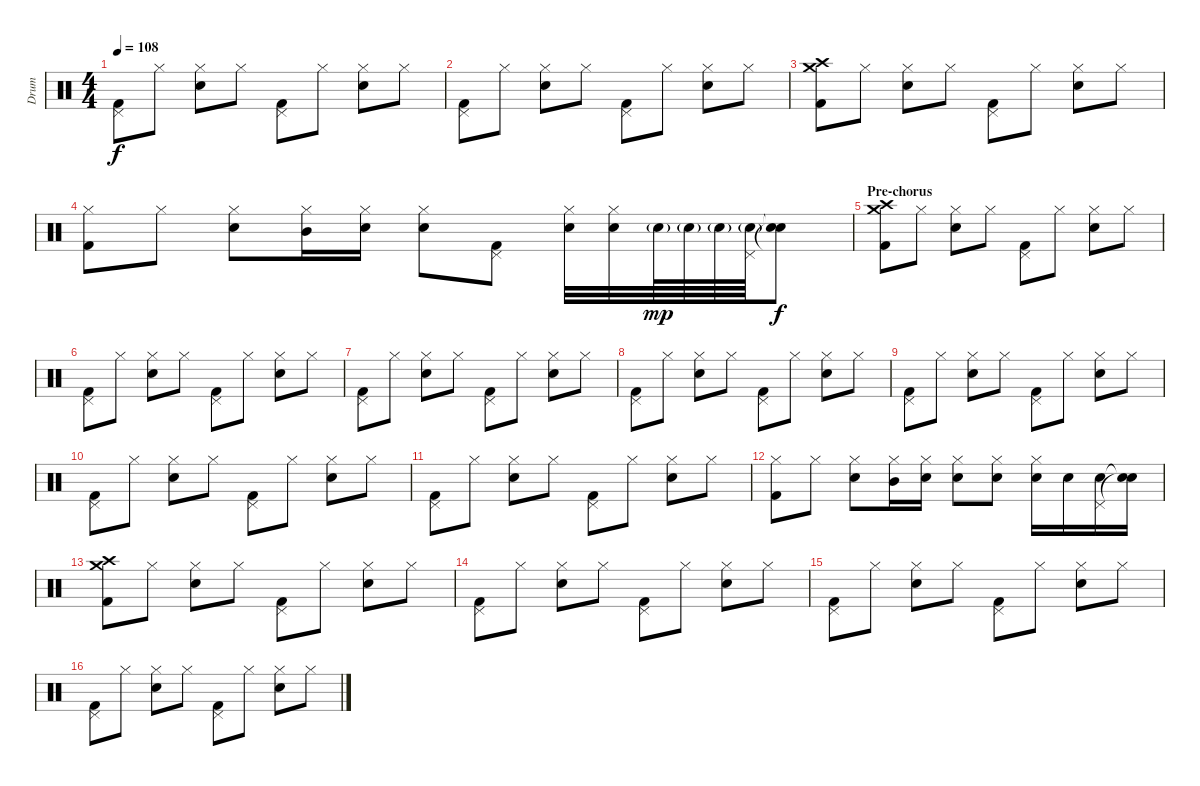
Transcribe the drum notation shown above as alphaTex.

\track ("Drum" "Drum") {instrument percussion}
\staff {score}
\articulation defaults
\ts (4 4)
\tempo 108
\clef neutral
\ks c
("Pedal Hi-Hat (hit)" "Kick (hit) 2").8{dy f} "Hi-Hat (closed)".8 ("Hi-Hat (closed)" "Electric Snare (hit)").8 "Hi-Hat (closed)".8 ("Pedal Hi-Hat (hit)" "Kick (hit) 2").8 "Hi-Hat (closed)".8 ("Hi-Hat (closed)" "Electric Snare (hit)").8 "Hi-Hat (closed)".8 |
("Pedal Hi-Hat (hit)" "Kick (hit) 2").8 "Hi-Hat (closed)".8 ("Hi-Hat (closed)" "Electric Snare (hit)").8 "Hi-Hat (closed)".8 ("Pedal Hi-Hat (hit)" "Kick (hit) 2").8 "Hi-Hat (closed)".8 ("Hi-Hat (closed)" "Electric Snare (hit)").8 "Hi-Hat (closed)".8 |
("Kick (hit) 2" "Crash high (hit)" "Crash medium (hit)").8 "Hi-Hat (closed)".8 ("Hi-Hat (closed)" "Electric Snare (hit)").8 "Hi-Hat (closed)".8 ("Pedal Hi-Hat (hit)" "Kick (hit) 2").8 "Hi-Hat (closed)".8 ("Hi-Hat (closed)" "Electric Snare (hit)").8 "Hi-Hat (closed)".8 |
("Hi-Hat (closed)" "Kick (hit) 2").8 "Hi-Hat (closed)".8 ("Hi-Hat (closed)" "Electric Snare (hit)").8 ("Hi-Hat (closed)" "Mid Tom (hit)").16 ("Hi-Hat (closed)" "Electric Snare (hit)").16 ("Hi-Hat (closed)" "Electric Snare (hit)").8 ("Pedal Hi-Hat (hit)" "Kick (hit) 2").8 ("Hi-Hat (closed)" "Electric Snare (hit)").32 ("Hi-Hat (closed)" "Electric Snare (hit)").32 "Electric Snare (hit)"{g}.64{dy mp} "Electric Snare (hit)"{g}.64 "Electric Snare (hit)"{g}.64 ("Pedal Hi-Hat (hit)" "Electric Snare (hit)"{g}).64 ("Snare (hit)"{t} "Snare (hit)"{t}).8{dy f} |
\section ("" "Pre-chorus")
("Kick (hit) 2" "Crash high (hit)" "Crash medium (hit)").8 "Hi-Hat (closed)".8 ("Hi-Hat (closed)" "Electric Snare (hit)").8 "Hi-Hat (closed)".8 ("Pedal Hi-Hat (hit)" "Kick (hit) 2").8 "Hi-Hat (closed)".8 ("Hi-Hat (closed)" "Electric Snare (hit)").8 "Hi-Hat (closed)".8 |
("Pedal Hi-Hat (hit)" "Kick (hit) 2").8 "Hi-Hat (closed)".8 ("Hi-Hat (closed)" "Electric Snare (hit)").8 "Hi-Hat (closed)".8 ("Pedal Hi-Hat (hit)" "Kick (hit) 2").8 "Hi-Hat (closed)".8 ("Hi-Hat (closed)" "Electric Snare (hit)").8 "Hi-Hat (closed)".8 |
("Pedal Hi-Hat (hit)" "Kick (hit) 2").8 "Hi-Hat (closed)".8 ("Hi-Hat (closed)" "Electric Snare (hit)").8 "Hi-Hat (closed)".8 ("Pedal Hi-Hat (hit)" "Kick (hit) 2").8 "Hi-Hat (closed)".8 ("Hi-Hat (closed)" "Electric Snare (hit)").8 "Hi-Hat (closed)".8 |
("Pedal Hi-Hat (hit)" "Kick (hit) 2").8 "Hi-Hat (closed)".8 ("Hi-Hat (closed)" "Electric Snare (hit)").8 "Hi-Hat (closed)".8 ("Pedal Hi-Hat (hit)" "Kick (hit) 2").8 "Hi-Hat (closed)".8 ("Hi-Hat (closed)" "Electric Snare (hit)").8 "Hi-Hat (closed)".8 |
("Pedal Hi-Hat (hit)" "Kick (hit) 2").8 "Hi-Hat (closed)".8 ("Hi-Hat (closed)" "Electric Snare (hit)").8 "Hi-Hat (closed)".8 ("Pedal Hi-Hat (hit)" "Kick (hit) 2").8 "Hi-Hat (closed)".8 ("Hi-Hat (closed)" "Electric Snare (hit)").8 "Hi-Hat (closed)".8 |
("Pedal Hi-Hat (hit)" "Kick (hit) 2").8 "Hi-Hat (closed)".8 ("Hi-Hat (closed)" "Electric Snare (hit)").8 "Hi-Hat (closed)".8 ("Pedal Hi-Hat (hit)" "Kick (hit) 2").8 "Hi-Hat (closed)".8 ("Hi-Hat (closed)" "Electric Snare (hit)").8 "Hi-Hat (closed)".8 |
("Pedal Hi-Hat (hit)" "Kick (hit) 2").8 "Hi-Hat (closed)".8 ("Hi-Hat (closed)" "Electric Snare (hit)").8 "Hi-Hat (closed)".8 ("Pedal Hi-Hat (hit)" "Kick (hit) 2").8 "Hi-Hat (closed)".8 ("Hi-Hat (closed)" "Electric Snare (hit)").8 "Hi-Hat (closed)".8 |
("Hi-Hat (closed)" "Kick (hit) 2").8 "Hi-Hat (closed)".8 ("Hi-Hat (closed)" "Electric Snare (hit)").8 ("Hi-Hat (closed)" "Mid Tom (hit)").16 ("Hi-Hat (closed)" "Electric Snare (hit)").16 ("Hi-Hat (closed)" "Electric Snare (hit)").8 ("Hi-Hat (closed)" "Electric Snare (hit)").8 ("Hi-Hat (closed)" "Electric Snare (hit)").16 "Electric Snare (hit)".16 ("Pedal Hi-Hat (hit)" "Electric Snare (hit)").16 ("Snare (hit)"{t} "Snare (hit)"{t}).16 |
("Kick (hit) 2" "Crash high (hit)" "Crash medium (hit)").8 "Hi-Hat (closed)".8 ("Hi-Hat (closed)" "Electric Snare (hit)").8 "Hi-Hat (closed)".8 ("Pedal Hi-Hat (hit)" "Kick (hit) 2").8 "Hi-Hat (closed)".8 ("Hi-Hat (closed)" "Electric Snare (hit)").8 "Hi-Hat (closed)".8 |
("Pedal Hi-Hat (hit)" "Kick (hit) 2").8 "Hi-Hat (closed)".8 ("Hi-Hat (closed)" "Electric Snare (hit)").8 "Hi-Hat (closed)".8 ("Pedal Hi-Hat (hit)" "Kick (hit) 2").8 "Hi-Hat (closed)".8 ("Hi-Hat (closed)" "Electric Snare (hit)").8 "Hi-Hat (closed)".8 |
("Pedal Hi-Hat (hit)" "Kick (hit) 2").8 "Hi-Hat (closed)".8 ("Hi-Hat (closed)" "Electric Snare (hit)").8 "Hi-Hat (closed)".8 ("Pedal Hi-Hat (hit)" "Kick (hit) 2").8 "Hi-Hat (closed)".8 ("Hi-Hat (closed)" "Electric Snare (hit)").8 "Hi-Hat (closed)".8 |
("Pedal Hi-Hat (hit)" "Kick (hit) 2").8 "Hi-Hat (closed)".8 ("Hi-Hat (closed)" "Electric Snare (hit)").8 "Hi-Hat (closed)".8 ("Pedal Hi-Hat (hit)" "Kick (hit) 2").8 "Hi-Hat (closed)".8 ("Hi-Hat (closed)" "Electric Snare (hit)").8 "Hi-Hat (closed)".8
